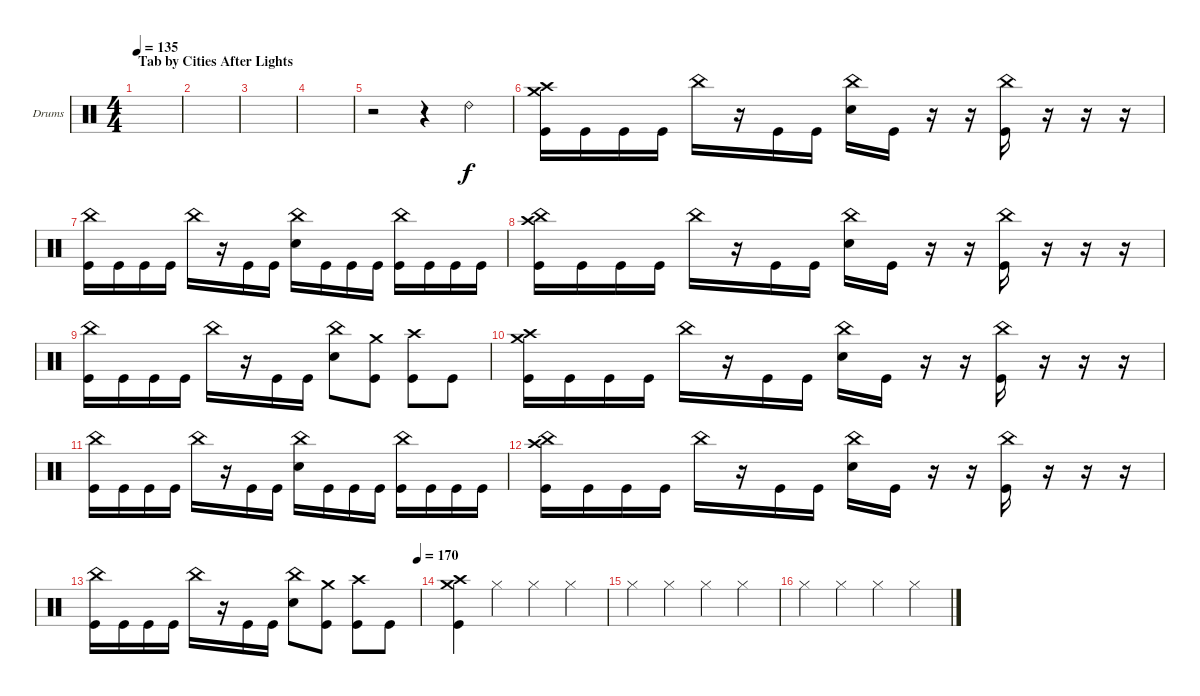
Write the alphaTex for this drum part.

\defaultSystemsLayout 4
\bracketExtendMode groupsimilarinstruments
\firstSystemTrackNameOrientation horizontal
\otherSystemsTrackNameOrientation horizontal
\track ("Drumkit" "Drums") {instrument percussion}
\staff {score}
\articulation defaults
\ts (4 4)
\section ("" "Tab by Cities After Lights")
\tempo 135
\clef neutral
\ks c
|
|
|
|
r.2 r.4 "Ride (bell) 2".4 |
("Kick (hit)" "Crash high (hit)" "Crash medium (hit)").16 "Kick (hit)".16 "Kick (hit)".16 "Kick (hit)".16 "China (hit)".16 r.16 "Kick (hit)".16 "Kick (hit)".16 ("Snare (hit) 2" "China (hit)").16 "Kick (hit)".16 r.16 r.16 ("Kick (hit)" "China (hit)").16 r.16 r.16 r.16 |
("Kick (hit)" "China (hit)").16 "Kick (hit)".16 "Kick (hit)".16 "Kick (hit)".16 "China (hit)".16 r.16 "Kick (hit)".16 "Kick (hit)".16 ("Snare (hit) 2" "China (hit)").16 "Kick (hit)".16 "Kick (hit)".16 "Kick (hit)".16 ("Kick (hit)" "China (hit)").16 "Kick (hit)".16 "Kick (hit)".16 "Kick (hit)".16 |
("Kick (hit)" "China (hit)" "Crash high (hit)").16 "Kick (hit)".16 "Kick (hit)".16 "Kick (hit)".16 "China (hit)".16 r.16 "Kick (hit)".16 "Kick (hit)".16 ("Snare (hit) 2" "China (hit)").16 "Kick (hit)".16 r.16 r.16 ("Kick (hit)" "China (hit)").16 r.16 r.16 r.16 |
("Kick (hit)" "China (hit)").16 "Kick (hit)".16 "Kick (hit)".16 "Kick (hit)".16 "China (hit)".16 r.16 "Kick (hit)".16 "Kick (hit)".16 ("Snare (hit) 2" "China (hit)").8 ("Kick (hit)" "Crash medium (hit)").8 ("Kick (hit)" "Crash high (hit)").8 "Kick (hit)".8 |
("Kick (hit)" "Crash high (hit)" "Crash medium (hit)").16 "Kick (hit)".16 "Kick (hit)".16 "Kick (hit)".16 "China (hit)".16 r.16 "Kick (hit)".16 "Kick (hit)".16 ("Snare (hit) 2" "China (hit)").16 "Kick (hit)".16 r.16 r.16 ("Kick (hit)" "China (hit)").16 r.16 r.16 r.16 |
("Kick (hit)" "China (hit)").16 "Kick (hit)".16 "Kick (hit)".16 "Kick (hit)".16 "China (hit)".16 r.16 "Kick (hit)".16 "Kick (hit)".16 ("Snare (hit) 2" "China (hit)").16 "Kick (hit)".16 "Kick (hit)".16 "Kick (hit)".16 ("Kick (hit)" "China (hit)").16 "Kick (hit)".16 "Kick (hit)".16 "Kick (hit)".16 |
("Kick (hit)" "China (hit)" "Crash high (hit)").16 "Kick (hit)".16 "Kick (hit)".16 "Kick (hit)".16 "China (hit)".16 r.16 "Kick (hit)".16 "Kick (hit)".16 ("Snare (hit) 2" "China (hit)").16 "Kick (hit)".16 r.16 r.16 ("Kick (hit)" "China (hit)").16 r.16 r.16 r.16 |
\tempo (170 0.99375)
("Kick (hit)" "China (hit)").16 "Kick (hit)".16 "Kick (hit)".16 "Kick (hit)".16 "China (hit)".16 r.16 "Kick (hit)".16 "Kick (hit)".16 ("Snare (hit) 2" "China (hit)").8 ("Kick (hit)" "Crash medium (hit)").8 ("Kick (hit)" "Crash high (hit)").8 "Kick (hit)".8 |
("Kick (hit)" "Crash high (hit)" "Crash medium (hit)").4 "Hi-Hat (closed)".4 "Hi-Hat (closed)".4 "Hi-Hat (closed)".4 |
"Hi-Hat (closed)".4 "Hi-Hat (closed)".4 "Hi-Hat (closed)".4 "Hi-Hat (closed)".4 |
"Hi-Hat (closed)".4 "Hi-Hat (closed)".4 "Hi-Hat (closed)".4 "Hi-Hat (closed)".4
